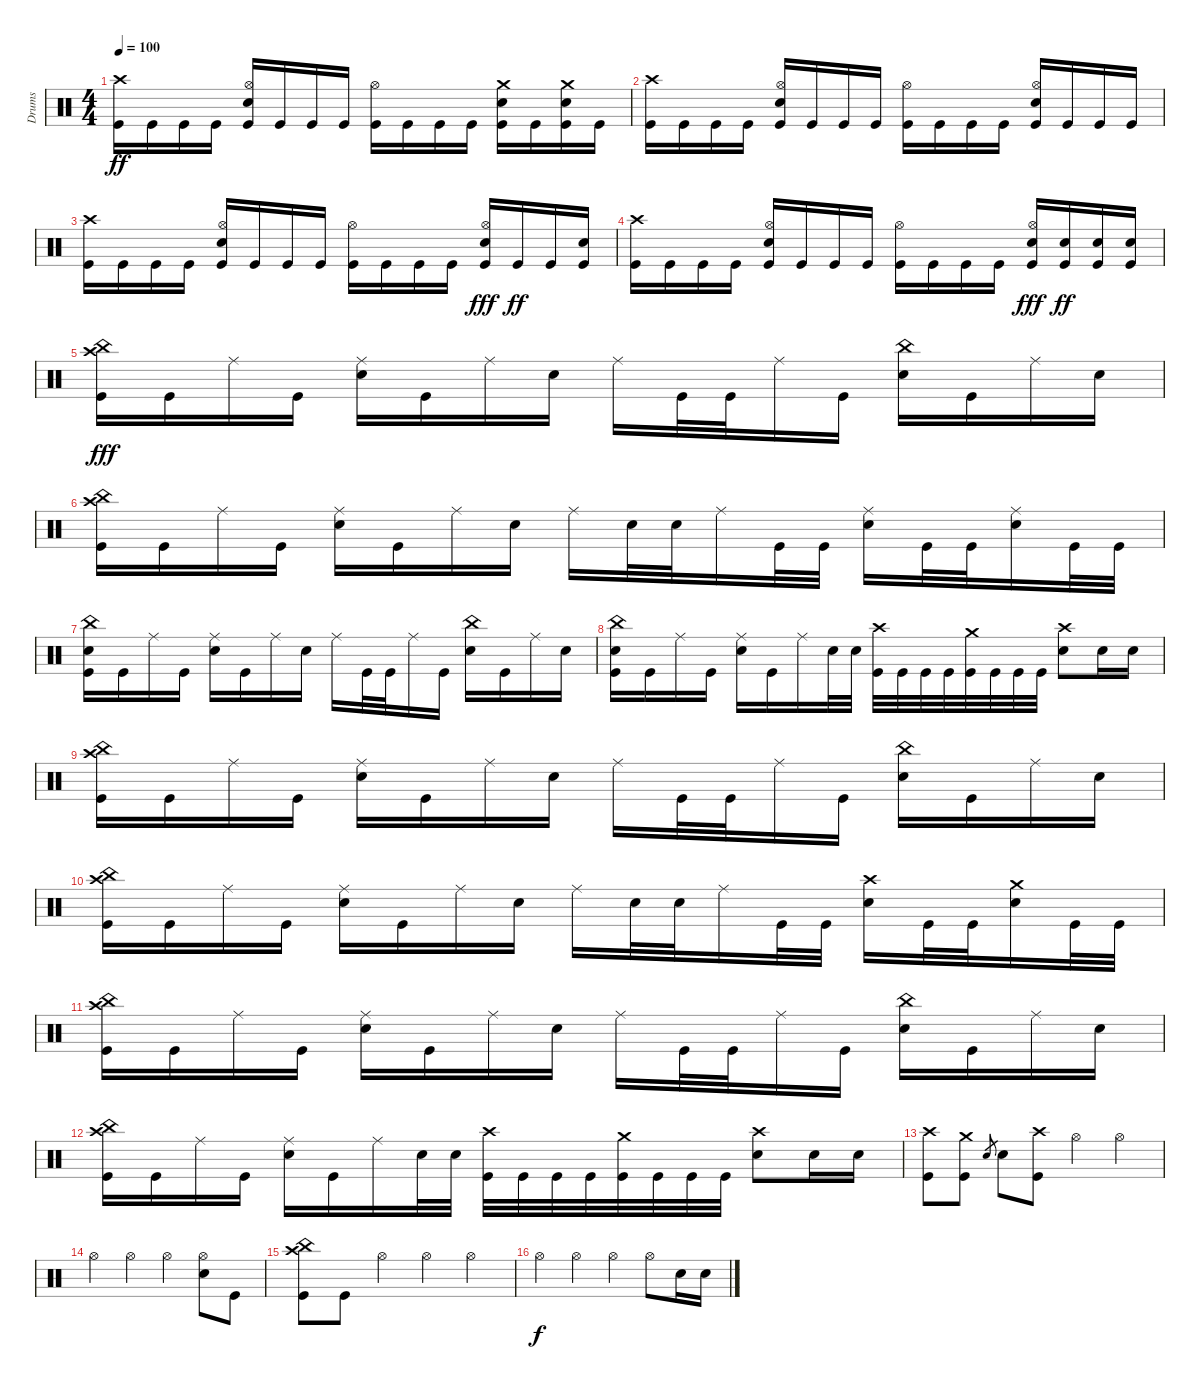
\track ("Drums" "Drums") {instrument percussion}
\staff {score}
\articulation defaults
\ts (4 4)
\tempo 100
\clef neutral
\ks c
("Crash high (hit)" "Kick (hit)").16{dy ff} "Kick (hit)".16 "Kick (hit)".16 "Kick (hit)".16 ("Hi-Hat (open)" "Kick (hit)" "Snare (hit) 2").16 "Kick (hit)".16 "Kick (hit)".16 "Kick (hit)".16 ("Hi-Hat (open)" "Kick (hit)").16 "Kick (hit)".16 "Kick (hit)".16 "Kick (hit)".16 ("Crash medium (hit)" "Kick (hit)" "Snare (hit) 2").16 "Kick (hit)".16 ("Crash medium (hit)" "Kick (hit)" "Snare (hit) 2").16 "Kick (hit)".16 |
("Crash high (hit)" "Kick (hit)").16 "Kick (hit)".16 "Kick (hit)".16 "Kick (hit)".16 ("Hi-Hat (open)" "Kick (hit)" "Snare (hit) 2").16 "Kick (hit)".16 "Kick (hit)".16 "Kick (hit)".16 ("Hi-Hat (open)" "Kick (hit)").16 "Kick (hit)".16 "Kick (hit)".16 "Kick (hit)".16 ("Hi-Hat (open)" "Kick (hit)" "Snare (hit) 2").16 "Kick (hit)".16 "Kick (hit)".16 "Kick (hit)".16 |
("Crash high (hit)" "Kick (hit)").16 "Kick (hit)".16 "Kick (hit)".16 "Kick (hit)".16 ("Hi-Hat (open)" "Kick (hit)" "Snare (hit) 2").16 "Kick (hit)".16 "Kick (hit)".16 "Kick (hit)".16 ("Hi-Hat (open)" "Kick (hit)").16 "Kick (hit)".16 "Kick (hit)".16 "Kick (hit)".16 ("Snare (hit) 2" "Kick (hit)" "Hi-Hat (open)").16{dy fff} "Kick (hit)".16{dy ff} "Kick (hit)".16 ("Snare (hit) 2" "Kick (hit)").16 |
("Crash high (hit)" "Kick (hit)").16 "Kick (hit)".16 "Kick (hit)".16 "Kick (hit)".16 ("Hi-Hat (open)" "Kick (hit)" "Snare (hit) 2").16 "Kick (hit)".16 "Kick (hit)".16 "Kick (hit)".16 ("Hi-Hat (open)" "Kick (hit)").16 "Kick (hit)".16 "Kick (hit)".16 "Kick (hit)".16 ("Snare (hit) 2" "Kick (hit)" "Hi-Hat (open)").16{dy fff} ("Snare (hit) 2" "Kick (hit)").16{dy ff} ("Snare (hit) 2" "Kick (hit)").16 ("Snare (hit) 2" "Kick (hit)").16 |
("Crash high (hit)" "Kick (hit)" "China (hit)").16{dy fff} "Kick (hit)".16 "Ride (middle)".16 "Kick (hit)".16 ("Ride (middle)" "Snare (hit) 2").16 "Kick (hit)".16 "Ride (middle)".16 "Snare (hit) 2".16 "Ride (middle)".16 "Kick (hit)".32 "Kick (hit)".32 "Ride (middle)".16 "Kick (hit)".16 ("China (hit)" "Snare (hit) 2").16 "Kick (hit)".16 "Ride (middle)".16 "Snare (hit) 2".16 |
("Crash high (hit)" "Kick (hit)" "China (hit)").16 "Kick (hit)".16 "Ride (middle)".16 "Kick (hit)".16 ("Ride (middle)" "Snare (hit) 2").16 "Kick (hit)".16 "Ride (middle)".16 "Snare (hit) 2".16 "Ride (middle)".16 "Snare (hit) 2".32 "Snare (hit) 2".32 "Ride (middle)".16 "Kick (hit)".32 "Kick (hit)".32 ("Ride (middle)" "Snare (hit) 2").16 "Kick (hit)".32 "Kick (hit)".32 ("Ride (middle)" "Snare (hit) 2").16 "Kick (hit)".32 "Kick (hit)".32 |
("Snare (hit)" "Kick (hit)" "China (hit)").16 "Kick (hit)".16 "Ride (middle)".16 "Kick (hit)".16 ("Ride (middle)" "Snare (hit) 2").16 "Kick (hit)".16 "Ride (middle)".16 "Snare (hit) 2".16 "Ride (middle)".16 "Kick (hit)".32 "Kick (hit)".32 "Ride (middle)".16 "Kick (hit)".16 ("China (hit)" "Snare (hit) 2").16 "Kick (hit)".16 "Ride (middle)".16 "Snare (hit) 2".16 |
("Snare (hit)" "Kick (hit)" "China (hit)").16 "Kick (hit)".16 "Ride (middle)".16 "Kick (hit)".16 ("Ride (middle)" "Snare (hit) 2").16 "Kick (hit)".16 "Ride (middle)".16 "Snare (hit) 2".32 "Snare (hit) 2".32 ("Crash high (hit)" "Kick (hit)").32 "Kick (hit)".32 "Kick (hit)".32 "Kick (hit)".32 ("Crash medium (hit)" "Kick (hit)").32 "Kick (hit)".32 "Kick (hit)".32 "Kick (hit)".32 ("Crash high (hit)" "Snare (hit) 2").8 "Snare (hit) 2".16 "Snare (hit) 2".16 |
("Crash high (hit)" "Kick (hit)" "China (hit)").16 "Kick (hit)".16 "Ride (middle)".16 "Kick (hit)".16 ("Ride (middle)" "Snare (hit) 2").16 "Kick (hit)".16 "Ride (middle)".16 "Snare (hit) 2".16 "Ride (middle)".16 "Kick (hit)".32 "Kick (hit)".32 "Ride (middle)".16 "Kick (hit)".16 ("China (hit)" "Snare (hit) 2").16 "Kick (hit)".16 "Ride (middle)".16 "Snare (hit) 2".16 |
("Crash high (hit)" "Kick (hit)" "China (hit)").16 "Kick (hit)".16 "Ride (middle)".16 "Kick (hit)".16 ("Ride (middle)" "Snare (hit) 2").16 "Kick (hit)".16 "Ride (middle)".16 "Snare (hit) 2".16 "Ride (middle)".16 "Snare (hit) 2".32 "Snare (hit) 2".32 "Ride (middle)".16 "Kick (hit)".32 "Kick (hit)".32 ("Crash high (hit)" "Snare (hit) 2").16 "Kick (hit)".32 "Kick (hit)".32 ("Crash medium (hit)" "Snare (hit) 2").16 "Kick (hit)".32 "Kick (hit)".32 |
("Crash high (hit)" "Kick (hit)" "China (hit)").16 "Kick (hit)".16 "Ride (middle)".16 "Kick (hit)".16 ("Ride (middle)" "Snare (hit) 2").16 "Kick (hit)".16 "Ride (middle)".16 "Snare (hit) 2".16 "Ride (middle)".16 "Kick (hit)".32 "Kick (hit)".32 "Ride (middle)".16 "Kick (hit)".16 ("China (hit)" "Snare (hit) 2").16 "Kick (hit)".16 "Ride (middle)".16 "Snare (hit) 2".16 |
("Crash high (hit)" "Kick (hit)" "China (hit)").16 "Kick (hit)".16 "Ride (middle)".16 "Kick (hit)".16 ("Ride (middle)" "Snare (hit) 2").16 "Kick (hit)".16 "Ride (middle)".16 "Snare (hit) 2".32 "Snare (hit) 2".32 ("Crash high (hit)" "Kick (hit)").32 "Kick (hit)".32 "Kick (hit)".32 "Kick (hit)".32 ("Crash medium (hit)" "Kick (hit)").32 "Kick (hit)".32 "Kick (hit)".32 "Kick (hit)".32 ("Crash high (hit)" "Snare (hit) 2").8 "Snare (hit) 2".16 "Snare (hit) 2".16 |
("Crash high (hit)" "Kick (hit)").8 ("Crash medium (hit)" "Kick (hit)").8 "Snare (hit) 2".8{gr} "Snare (hit) 2".8 ("Crash high (hit)" "Kick (hit)").8 "Hi-Hat (open)".4 "Hi-Hat (open)".4 |
"Hi-Hat (open)".4 "Hi-Hat (open)".4 "Hi-Hat (open)".4 ("Hi-Hat (open)" "Snare (hit) 2").8 "Kick (hit)".8 |
("China (hit)" "Crash high (hit)" "Kick (hit)").8 "Kick (hit)".8 "Hi-Hat (open)".4 "Hi-Hat (open)".4 "Hi-Hat (open)".4 |
"Hi-Hat (open)".4{dy f} "Hi-Hat (open)".4 "Hi-Hat (open)".4 "Hi-Hat (open)".8 "Snare (hit) 2".16 "Snare (hit) 2".16
